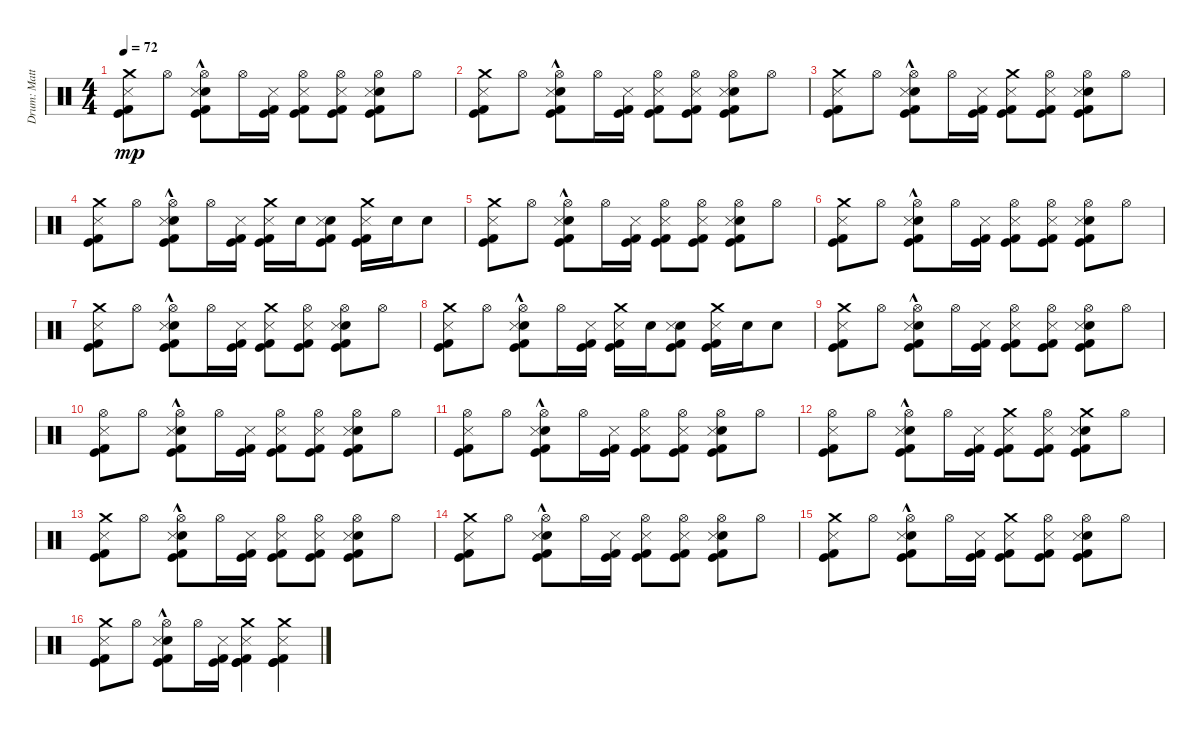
\track ("Drum: Matt" "Drum: Matt") {instrument percussion}
\staff {score}
\articulation defaults
\ts (4 4)
\tempo 72
\clef neutral
\ks c
("Crash medium (hit)" "Metronome (hit)" "Kick (hit)" "Kick (hit) 2").8{dy mp} "Hi-Hat (open)".8 ("Snare (hit) 2" "Hi-Hat (open)" "Metronome (hit)"{hac} "Kick (hit)"{hac} "Kick (hit) 2"{hac}).8 "Hi-Hat (open)".16 ("Metronome (hit)" "Kick (hit)" "Kick (hit) 2").16 ("Hi-Hat (open)" "Metronome (hit)" "Kick (hit)" "Kick (hit) 2").8 ("Hi-Hat (open)" "Metronome (hit)" "Kick (hit)" "Kick (hit) 2").8 ("Snare (hit) 2" "Hi-Hat (open)" "Metronome (hit)" "Kick (hit)" "Kick (hit) 2").8 "Hi-Hat (open)".8 |
("Crash medium (hit)" "Metronome (hit)" "Kick (hit)" "Kick (hit) 2").8 "Hi-Hat (open)".8 ("Snare (hit) 2" "Hi-Hat (open)" "Metronome (hit)"{hac} "Kick (hit)"{hac} "Kick (hit) 2"{hac}).8 "Hi-Hat (open)".16 ("Metronome (hit)" "Kick (hit)" "Kick (hit) 2").16 ("Hi-Hat (open)" "Metronome (hit)" "Kick (hit)" "Kick (hit) 2").8 ("Hi-Hat (open)" "Metronome (hit)" "Kick (hit)" "Kick (hit) 2").8 ("Snare (hit) 2" "Hi-Hat (open)" "Metronome (hit)" "Kick (hit)" "Kick (hit) 2").8 "Hi-Hat (open)".8 |
("Crash medium (hit)" "Metronome (hit)" "Kick (hit)" "Kick (hit) 2").8 "Hi-Hat (open)".8 ("Snare (hit) 2" "Hi-Hat (open)" "Metronome (hit)"{hac} "Kick (hit)"{hac} "Kick (hit) 2"{hac}).8 "Hi-Hat (open)".16 ("Metronome (hit)" "Kick (hit)" "Kick (hit) 2").16 ("Crash medium (hit)" "Metronome (hit)" "Kick (hit)" "Kick (hit) 2").8 ("Hi-Hat (open)" "Metronome (hit)" "Kick (hit)" "Kick (hit) 2").8 ("Snare (hit) 2" "Hi-Hat (open)" "Metronome (hit)" "Kick (hit)" "Kick (hit) 2").8 "Hi-Hat (open)".8 |
("Crash medium (hit)" "Metronome (hit)" "Kick (hit)" "Kick (hit) 2").8 "Hi-Hat (open)".8 ("Snare (hit) 2" "Hi-Hat (open)" "Metronome (hit)"{hac} "Kick (hit)"{hac} "Kick (hit) 2"{hac}).8 "Hi-Hat (open)".16 ("Metronome (hit)" "Kick (hit)" "Kick (hit) 2").16 ("Crash medium (hit)" "Metronome (hit)" "Kick (hit)" "Kick (hit) 2").16 "Snare (hit) 2".16 ("Snare (hit) 2" "Metronome (hit)" "Kick (hit)" "Kick (hit) 2").8 ("Crash medium (hit)" "Metronome (hit)" "Kick (hit)" "Kick (hit) 2").16 "Snare (hit) 2".16 "Snare (hit) 2".8 |
("Crash medium (hit)" "Metronome (hit)" "Kick (hit)" "Kick (hit) 2").8 "Hi-Hat (open)".8 ("Snare (hit) 2" "Hi-Hat (open)" "Metronome (hit)"{hac} "Kick (hit)"{hac} "Kick (hit) 2"{hac}).8 "Hi-Hat (open)".16 ("Metronome (hit)" "Kick (hit)" "Kick (hit) 2").16 ("Hi-Hat (open)" "Metronome (hit)" "Kick (hit)" "Kick (hit) 2").8 ("Hi-Hat (open)" "Metronome (hit)" "Kick (hit)" "Kick (hit) 2").8 ("Snare (hit) 2" "Hi-Hat (open)" "Metronome (hit)" "Kick (hit)" "Kick (hit) 2").8 "Hi-Hat (open)".8 |
("Crash medium (hit)" "Metronome (hit)" "Kick (hit)" "Kick (hit) 2").8 "Hi-Hat (open)".8 ("Snare (hit) 2" "Hi-Hat (open)" "Metronome (hit)"{hac} "Kick (hit)"{hac} "Kick (hit) 2"{hac}).8 "Hi-Hat (open)".16 ("Metronome (hit)" "Kick (hit)" "Kick (hit) 2").16 ("Hi-Hat (open)" "Metronome (hit)" "Kick (hit)" "Kick (hit) 2").8 ("Hi-Hat (open)" "Metronome (hit)" "Kick (hit)" "Kick (hit) 2").8 ("Snare (hit) 2" "Hi-Hat (open)" "Metronome (hit)" "Kick (hit)" "Kick (hit) 2").8 "Hi-Hat (open)".8 |
("Crash medium (hit)" "Metronome (hit)" "Kick (hit)" "Kick (hit) 2").8 "Hi-Hat (open)".8 ("Snare (hit) 2" "Hi-Hat (open)" "Metronome (hit)"{hac} "Kick (hit)"{hac} "Kick (hit) 2"{hac}).8 "Hi-Hat (open)".16 ("Metronome (hit)" "Kick (hit)" "Kick (hit) 2").16 ("Crash medium (hit)" "Metronome (hit)" "Kick (hit)" "Kick (hit) 2").8 ("Hi-Hat (open)" "Metronome (hit)" "Kick (hit)" "Kick (hit) 2").8 ("Snare (hit) 2" "Hi-Hat (open)" "Metronome (hit)" "Kick (hit)" "Kick (hit) 2").8 "Hi-Hat (open)".8 |
("Crash medium (hit)" "Metronome (hit)" "Kick (hit)" "Kick (hit) 2").8 "Hi-Hat (open)".8 ("Snare (hit) 2" "Hi-Hat (open)" "Metronome (hit)"{hac} "Kick (hit)"{hac} "Kick (hit) 2"{hac}).8 "Hi-Hat (open)".16 ("Metronome (hit)" "Kick (hit)" "Kick (hit) 2").16 ("Crash medium (hit)" "Metronome (hit)" "Kick (hit)" "Kick (hit) 2").16 "Snare (hit) 2".16 ("Snare (hit) 2" "Metronome (hit)" "Kick (hit)" "Kick (hit) 2").8 ("Crash medium (hit)" "Metronome (hit)" "Kick (hit)" "Kick (hit) 2").16 "Snare (hit) 2".16 "Snare (hit) 2".8 |
("Crash medium (hit)" "Metronome (hit)" "Kick (hit)" "Kick (hit) 2").8 "Hi-Hat (open)".8 ("Snare (hit) 2" "Hi-Hat (open)" "Metronome (hit)"{hac} "Kick (hit)"{hac} "Kick (hit) 2"{hac}).8 "Hi-Hat (open)".16 ("Metronome (hit)" "Kick (hit)" "Kick (hit) 2").16 ("Hi-Hat (open)" "Metronome (hit)" "Kick (hit)" "Kick (hit) 2").8 ("Hi-Hat (open)" "Metronome (hit)" "Kick (hit)" "Kick (hit) 2").8 ("Snare (hit) 2" "Hi-Hat (open)" "Metronome (hit)" "Kick (hit)" "Kick (hit) 2").8 "Hi-Hat (open)".8 |
("Hi-Hat (open)" "Metronome (hit)" "Kick (hit)" "Kick (hit) 2").8 "Hi-Hat (open)".8 ("Snare (hit) 2" "Hi-Hat (open)" "Metronome (hit)"{hac} "Kick (hit)"{hac} "Kick (hit) 2"{hac}).8 "Hi-Hat (open)".16 ("Metronome (hit)" "Kick (hit)" "Kick (hit) 2").16 ("Hi-Hat (open)" "Metronome (hit)" "Kick (hit)" "Kick (hit) 2").8 ("Hi-Hat (open)" "Metronome (hit)" "Kick (hit)" "Kick (hit) 2").8 ("Snare (hit) 2" "Hi-Hat (open)" "Metronome (hit)" "Kick (hit)" "Kick (hit) 2").8 "Hi-Hat (open)".8 |
("Hi-Hat (open)" "Metronome (hit)" "Kick (hit)" "Kick (hit) 2").8 "Hi-Hat (open)".8 ("Snare (hit) 2" "Hi-Hat (open)" "Metronome (hit)"{hac} "Kick (hit)"{hac} "Kick (hit) 2"{hac}).8 "Hi-Hat (open)".16 ("Metronome (hit)" "Kick (hit)" "Kick (hit) 2").16 ("Hi-Hat (open)" "Metronome (hit)" "Kick (hit)" "Kick (hit) 2").8 ("Hi-Hat (open)" "Metronome (hit)" "Kick (hit)" "Kick (hit) 2").8 ("Snare (hit) 2" "Hi-Hat (open)" "Metronome (hit)" "Kick (hit)" "Kick (hit) 2").8 "Hi-Hat (open)".8 |
("Hi-Hat (open)" "Metronome (hit)" "Kick (hit)" "Kick (hit) 2").8 "Hi-Hat (open)".8 ("Snare (hit) 2" "Hi-Hat (open)" "Metronome (hit)"{hac} "Kick (hit)"{hac} "Kick (hit) 2"{hac}).8 "Hi-Hat (open)".16 ("Metronome (hit)" "Kick (hit)" "Kick (hit) 2").16 ("Crash medium (hit)" "Metronome (hit)" "Kick (hit)" "Kick (hit) 2").8 ("Hi-Hat (open)" "Metronome (hit)" "Kick (hit)" "Kick (hit) 2").8 ("Snare (hit) 2" "Crash medium (hit)" "Metronome (hit)" "Kick (hit)" "Kick (hit) 2").8 "Hi-Hat (open)".8 |
("Crash medium (hit)" "Metronome (hit)" "Kick (hit)" "Kick (hit) 2").8 "Hi-Hat (open)".8 ("Snare (hit) 2" "Hi-Hat (open)" "Metronome (hit)"{hac} "Kick (hit)"{hac} "Kick (hit) 2"{hac}).8 "Hi-Hat (open)".16 ("Metronome (hit)" "Kick (hit)" "Kick (hit) 2").16 ("Hi-Hat (open)" "Metronome (hit)" "Kick (hit)" "Kick (hit) 2").8 ("Hi-Hat (open)" "Metronome (hit)" "Kick (hit)" "Kick (hit) 2").8 ("Snare (hit) 2" "Hi-Hat (open)" "Metronome (hit)" "Kick (hit)" "Kick (hit) 2").8 "Hi-Hat (open)".8 |
("Crash medium (hit)" "Metronome (hit)" "Kick (hit)" "Kick (hit) 2").8 "Hi-Hat (open)".8 ("Snare (hit) 2" "Hi-Hat (open)" "Metronome (hit)"{hac} "Kick (hit)"{hac} "Kick (hit) 2"{hac}).8 "Hi-Hat (open)".16 ("Metronome (hit)" "Kick (hit)" "Kick (hit) 2").16 ("Hi-Hat (open)" "Metronome (hit)" "Kick (hit)" "Kick (hit) 2").8 ("Hi-Hat (open)" "Metronome (hit)" "Kick (hit)" "Kick (hit) 2").8 ("Snare (hit) 2" "Hi-Hat (open)" "Metronome (hit)" "Kick (hit)" "Kick (hit) 2").8 "Hi-Hat (open)".8 |
("Crash medium (hit)" "Metronome (hit)" "Kick (hit)" "Kick (hit) 2").8 "Hi-Hat (open)".8 ("Snare (hit) 2" "Hi-Hat (open)" "Metronome (hit)"{hac} "Kick (hit)"{hac} "Kick (hit) 2"{hac}).8 "Hi-Hat (open)".16 ("Metronome (hit)" "Kick (hit)" "Kick (hit) 2").16 ("Crash medium (hit)" "Metronome (hit)" "Kick (hit)" "Kick (hit) 2").8 ("Hi-Hat (open)" "Metronome (hit)" "Kick (hit)" "Kick (hit) 2").8 ("Snare (hit) 2" "Hi-Hat (open)" "Metronome (hit)" "Kick (hit)" "Kick (hit) 2").8 "Hi-Hat (open)".8 |
("Crash medium (hit)" "Metronome (hit)" "Kick (hit)" "Kick (hit) 2").8 "Hi-Hat (open)".8 ("Snare (hit) 2" "Hi-Hat (open)" "Metronome (hit)"{hac} "Kick (hit)"{hac} "Kick (hit) 2"{hac}).8 "Hi-Hat (open)".16 ("Metronome (hit)" "Kick (hit)" "Kick (hit) 2").16 ("Kick (hit)" "Crash medium (hit)" "Metronome (hit)" "Kick (hit)" "Kick (hit) 2").4 ("Kick (hit)" "Crash medium (hit)" "Metronome (hit)" "Kick (hit)" "Kick (hit) 2").4
